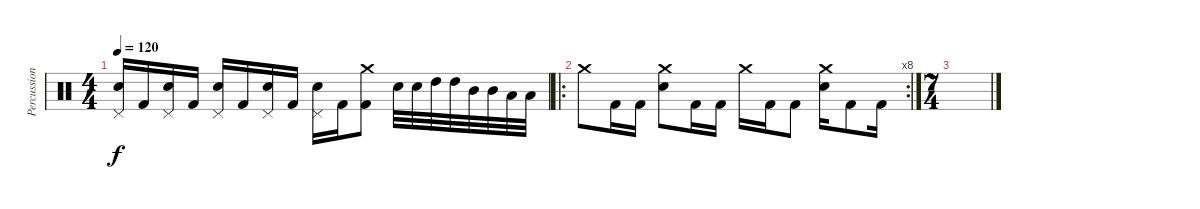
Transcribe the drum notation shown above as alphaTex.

\track ("Percussion" "Percussion") {instrument percussion}
\staff {score}
\articulation defaults
\ts (4 4)
\tempo 120
\clef neutral
\ks c
("Pedal Hi-Hat (hit)" "Electric Snare (hit)").16{dy f} "Kick (hit) 2".16 ("Pedal Hi-Hat (hit)" "Electric Snare (hit)").16 "Kick (hit) 2".16 ("Pedal Hi-Hat (hit)" "Electric Snare (hit)").16 "Kick (hit) 2".16 ("Pedal Hi-Hat (hit)" "Electric Snare (hit)").16 "Kick (hit) 2".16 ("Pedal Hi-Hat (hit)" "Electric Snare (hit)").16 "Kick (hit) 2".16 ("Crash medium (hit)" "Kick (hit) 2").8 "Electric Snare (hit)".32 "Electric Snare (hit)".32 "High Tom (hit)".32 "High Tom (hit)".32 "Mid Tom (hit)".32 "Mid Tom (hit)".32 "Low Tom (hit)".32 "Low Tom (hit)".32 |
\ro
\rc 8 "Crash medium (hit)".8 "Kick (hit) 2".16 "Kick (hit) 2".16
("Crash medium (hit)" "Electric Snare (hit)").8 "Kick (hit) 2".16 "Kick (hit) 2".16 "Crash medium (hit)".16 "Kick (hit) 2".16 "Kick (hit) 2".8 ("Crash medium (hit)" "Electric Snare (hit)").16 "Kick (hit) 2".8 "Kick (hit) 2".16 |
\ts (7 4)
